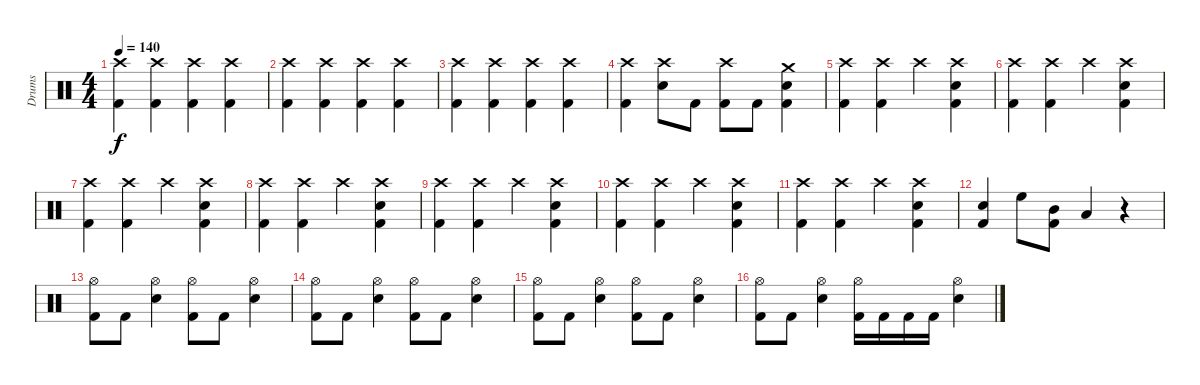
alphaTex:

\track ("Drums" "Drums") {instrument percussion}
\staff {score}
\articulation defaults
\ts (4 4)
\tempo 140
\clef neutral
\ks c
("Crash high (hit)" "Kick (hit) 2").4{dy f} ("Crash high (hit)" "Kick (hit) 2").4 ("Crash high (hit)" "Kick (hit) 2").4 ("Crash high (hit)" "Kick (hit) 2").4 |
("Crash high (hit)" "Kick (hit) 2").4 ("Crash high (hit)" "Kick (hit) 2").4 ("Crash high (hit)" "Kick (hit) 2").4 ("Crash high (hit)" "Kick (hit) 2").4 |
("Crash high (hit)" "Kick (hit) 2").4 ("Crash high (hit)" "Kick (hit) 2").4 ("Crash high (hit)" "Kick (hit) 2").4 ("Crash high (hit)" "Kick (hit) 2").4 |
("Crash high (hit)" "Kick (hit) 2").4 ("Crash high (hit)" "Electric Snare (hit)").8 "Kick (hit) 2".8 ("Crash high (hit)" "Kick (hit) 2").8 "Kick (hit) 2".8 ("Crash medium (hit)" "Electric Snare (hit)" "Kick (hit) 2").4 |
("Crash high (hit)" "Kick (hit) 2").4 ("Crash high (hit)" "Kick (hit) 2").4 "Crash high (hit)".4 ("Crash high (hit)" "Electric Snare (hit)" "Kick (hit) 2").4 |
("Crash high (hit)" "Kick (hit) 2").4 ("Crash high (hit)" "Kick (hit) 2").4 "Crash high (hit)".4 ("Crash high (hit)" "Electric Snare (hit)" "Kick (hit) 2").4 |
("Crash high (hit)" "Kick (hit) 2").4 ("Crash high (hit)" "Kick (hit) 2").4 "Crash high (hit)".4 ("Crash high (hit)" "Electric Snare (hit)" "Kick (hit) 2").4 |
("Crash high (hit)" "Kick (hit) 2").4 ("Crash high (hit)" "Kick (hit) 2").4 "Crash high (hit)".4 ("Crash high (hit)" "Electric Snare (hit)" "Kick (hit) 2").4 |
("Crash high (hit)" "Kick (hit) 2").4 ("Crash high (hit)" "Kick (hit) 2").4 "Crash high (hit)".4 ("Crash high (hit)" "Electric Snare (hit)" "Kick (hit) 2").4 |
("Crash high (hit)" "Kick (hit) 2").4 ("Crash high (hit)" "Kick (hit) 2").4 "Crash high (hit)".4 ("Crash high (hit)" "Electric Snare (hit)" "Kick (hit) 2").4 |
("Crash high (hit)" "Kick (hit) 2").4 ("Crash high (hit)" "Kick (hit) 2").4 "Crash high (hit)".4 ("Crash high (hit)" "Electric Snare (hit)" "Kick (hit) 2").4 |
("Electric Snare (hit)" "Kick (hit) 2").4 "High Floor Tom (hit)".8 ("Mid Tom (hit)" "Kick (hit) 2").8 "Low Tom (hit)".4 r.4 |
("Hi-Hat (open)" "Kick (hit) 2").8 "Kick (hit) 2".8 ("Hi-Hat (open)" "Electric Snare (hit)").4 ("Hi-Hat (open)" "Kick (hit) 2").8 "Kick (hit) 2".8 ("Hi-Hat (open)" "Electric Snare (hit)").4 |
("Hi-Hat (open)" "Kick (hit) 2").8 "Kick (hit) 2".8 ("Hi-Hat (open)" "Electric Snare (hit)").4 ("Hi-Hat (open)" "Kick (hit) 2").8 "Kick (hit) 2".8 ("Hi-Hat (open)" "Electric Snare (hit)").4 |
("Hi-Hat (open)" "Kick (hit) 2").8 "Kick (hit) 2".8 ("Hi-Hat (open)" "Electric Snare (hit)").4 ("Hi-Hat (open)" "Kick (hit) 2").8 "Kick (hit) 2".8 ("Hi-Hat (open)" "Electric Snare (hit)").4 |
("Hi-Hat (open)" "Kick (hit) 2").8 "Kick (hit) 2".8 ("Hi-Hat (open)" "Electric Snare (hit)").4 ("Hi-Hat (open)" "Kick (hit) 2").16 "Kick (hit) 2".16 "Kick (hit) 2".16 "Kick (hit) 2".16 ("Hi-Hat (open)" "Electric Snare (hit)").4
